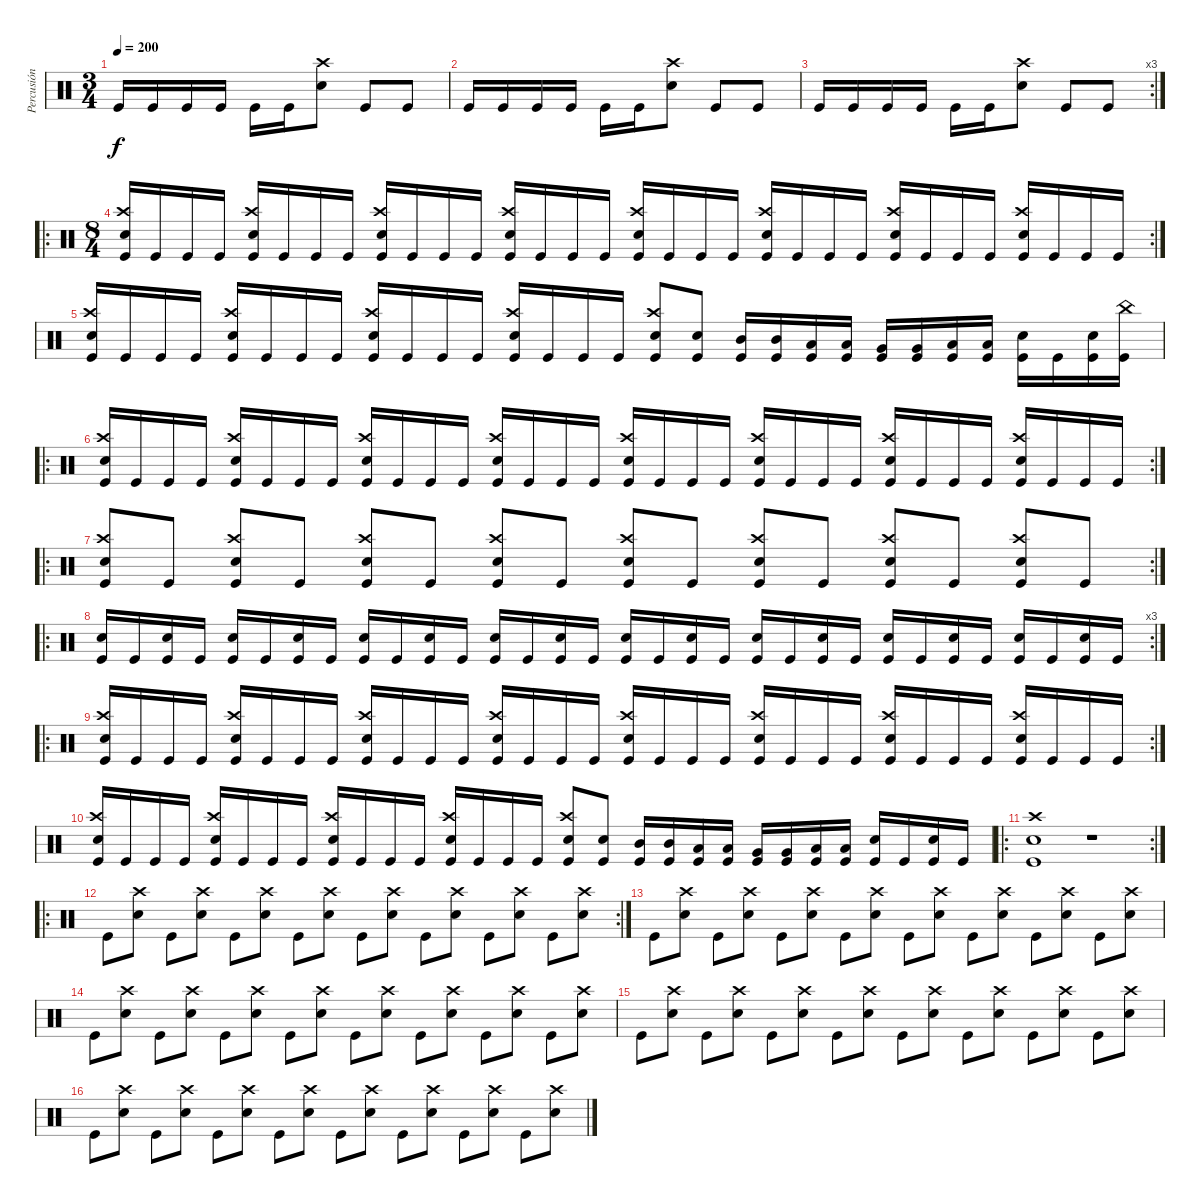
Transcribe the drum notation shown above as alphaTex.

\track ("Percusión" "Percusión") {instrument percussion}
\staff {score}
\articulation defaults
\ts (3 4)
\tempo 200
\clef neutral
\ks c "Kick (hit)".16{dy f} "Kick (hit)".16 "Kick (hit)".16 "Kick (hit)".16 "Kick (hit)".16 "Kick (hit)".16
("Crash high (hit)" "Snare (hit) 2").8 "Kick (hit)".8 "Kick (hit)".8 |
"Kick (hit)".16 "Kick (hit)".16 "Kick (hit)".16 "Kick (hit)".16 "Kick (hit)".16 "Kick (hit)".16 ("Crash high (hit)" "Snare (hit) 2").8 "Kick (hit)".8 "Kick (hit)".8 |
\rc 3 "Kick (hit)".16 "Kick (hit)".16 "Kick (hit)".16 "Kick (hit)".16 "Kick (hit)".16 "Kick (hit)".16
("Crash high (hit)" "Snare (hit) 2").8 "Kick (hit)".8 "Kick (hit)".8 |
\ro
\rc 2
\ts (8 4)
("Crash high (hit)" "Snare (hit) 2" "Kick (hit)").16 "Kick (hit)".16 "Kick (hit)".16 "Kick (hit)".16 ("Crash high (hit)" "Snare (hit) 2" "Kick (hit)").16 "Kick (hit)".16 "Kick (hit)".16 "Kick (hit)".16 ("Crash high (hit)" "Snare (hit) 2" "Kick (hit)").16 "Kick (hit)".16 "Kick (hit)".16 "Kick (hit)".16 ("Crash high (hit)" "Snare (hit) 2" "Kick (hit)").16 "Kick (hit)".16 "Kick (hit)".16 "Kick (hit)".16 ("Crash high (hit)" "Snare (hit) 2" "Kick (hit)").16 "Kick (hit)".16 "Kick (hit)".16 "Kick (hit)".16 ("Crash high (hit)" "Snare (hit) 2" "Kick (hit)").16 "Kick (hit)".16 "Kick (hit)".16 "Kick (hit)".16 ("Crash high (hit)" "Snare (hit) 2" "Kick (hit)").16 "Kick (hit)".16 "Kick (hit)".16 "Kick (hit)".16 ("Crash high (hit)" "Snare (hit) 2" "Kick (hit)").16 "Kick (hit)".16 "Kick (hit)".16 "Kick (hit)".16 |
("Crash high (hit)" "Snare (hit) 2" "Kick (hit)").16 "Kick (hit)".16 "Kick (hit)".16 "Kick (hit)".16 ("Crash high (hit)" "Snare (hit) 2" "Kick (hit)").16 "Kick (hit)".16 "Kick (hit)".16 "Kick (hit)".16 ("Crash high (hit)" "Snare (hit) 2" "Kick (hit)").16 "Kick (hit)".16 "Kick (hit)".16 "Kick (hit)".16 ("Crash high (hit)" "Snare (hit) 2" "Kick (hit)").16 "Kick (hit)".16 "Kick (hit)".16 "Kick (hit)".16 ("Crash high (hit)" "Snare (hit) 2" "Kick (hit)").8 ("Snare (hit) 2" "Kick (hit)").8 ("Mid Tom (hit)" "Kick (hit)").16 ("Mid Tom (hit)" "Kick (hit)").16 ("Low Tom (hit)" "Kick (hit)").16 ("Low Tom (hit)" "Kick (hit)").16 ("Very Low Tom (hit)" "Kick (hit)").16 ("Very Low Tom (hit)" "Kick (hit)").16 ("Low Floor Tom (hit)" "Kick (hit)").16 ("Low Floor Tom (hit)" "Kick (hit)").16 ("Snare (hit) 2" "Kick (hit)").16 "Kick (hit)".16 ("Snare (hit) 2" "Kick (hit)").16 ("China (hit)" "Kick (hit)").16 |
\ro
\rc 2
("Crash high (hit)" "Snare (hit) 2" "Kick (hit)").16 "Kick (hit)".16 "Kick (hit)".16 "Kick (hit)".16 ("Crash high (hit)" "Snare (hit) 2" "Kick (hit)").16 "Kick (hit)".16 "Kick (hit)".16 "Kick (hit)".16 ("Crash high (hit)" "Snare (hit) 2" "Kick (hit)").16 "Kick (hit)".16 "Kick (hit)".16 "Kick (hit)".16 ("Crash high (hit)" "Snare (hit) 2" "Kick (hit)").16 "Kick (hit)".16 "Kick (hit)".16 "Kick (hit)".16 ("Crash high (hit)" "Snare (hit) 2" "Kick (hit)").16 "Kick (hit)".16 "Kick (hit)".16 "Kick (hit)".16 ("Crash high (hit)" "Snare (hit) 2" "Kick (hit)").16 "Kick (hit)".16 "Kick (hit)".16 "Kick (hit)".16 ("Crash high (hit)" "Snare (hit) 2" "Kick (hit)").16 "Kick (hit)".16 "Kick (hit)".16 "Kick (hit)".16 ("Crash high (hit)" "Snare (hit) 2" "Kick (hit)").16 "Kick (hit)".16 "Kick (hit)".16 "Kick (hit)".16 |
\ro
\rc 2
("Crash high (hit)" "Snare (hit) 2" "Kick (hit)").8 "Kick (hit)".8 ("Crash high (hit)" "Snare (hit) 2" "Kick (hit)").8 "Kick (hit)".8 ("Crash high (hit)" "Snare (hit) 2" "Kick (hit)").8 "Kick (hit)".8 ("Crash high (hit)" "Snare (hit) 2" "Kick (hit)").8 "Kick (hit)".8 ("Crash high (hit)" "Snare (hit) 2" "Kick (hit)").8 "Kick (hit)".8 ("Crash high (hit)" "Snare (hit) 2" "Kick (hit)").8 "Kick (hit)".8 ("Crash high (hit)" "Snare (hit) 2" "Kick (hit)").8 "Kick (hit)".8 ("Crash high (hit)" "Snare (hit) 2" "Kick (hit)").8 "Kick (hit)".8 |
\ro
\rc 3
("Snare (hit) 2" "Kick (hit)").16 "Kick (hit)".16 ("Snare (hit) 2" "Kick (hit)").16 "Kick (hit)".16 ("Snare (hit) 2" "Kick (hit)").16 "Kick (hit)".16 ("Snare (hit) 2" "Kick (hit)").16 "Kick (hit)".16 ("Snare (hit) 2" "Kick (hit)").16 "Kick (hit)".16 ("Snare (hit) 2" "Kick (hit)").16 "Kick (hit)".16 ("Snare (hit) 2" "Kick (hit)").16 "Kick (hit)".16 ("Snare (hit) 2" "Kick (hit)").16 "Kick (hit)".16 ("Snare (hit) 2" "Kick (hit)").16 "Kick (hit)".16 ("Snare (hit) 2" "Kick (hit)").16 "Kick (hit)".16 ("Snare (hit) 2" "Kick (hit)").16 "Kick (hit)".16 ("Snare (hit) 2" "Kick (hit)").16 "Kick (hit)".16 ("Snare (hit) 2" "Kick (hit)").16 "Kick (hit)".16 ("Snare (hit) 2" "Kick (hit)").16 "Kick (hit)".16 ("Snare (hit) 2" "Kick (hit)").16 "Kick (hit)".16 ("Snare (hit) 2" "Kick (hit)").16 "Kick (hit)".16 |
\ro
\rc 2
("Crash high (hit)" "Snare (hit) 2" "Kick (hit)").16 "Kick (hit)".16 "Kick (hit)".16 "Kick (hit)".16 ("Crash high (hit)" "Snare (hit) 2" "Kick (hit)").16 "Kick (hit)".16 "Kick (hit)".16 "Kick (hit)".16 ("Crash high (hit)" "Snare (hit) 2" "Kick (hit)").16 "Kick (hit)".16 "Kick (hit)".16 "Kick (hit)".16 ("Crash high (hit)" "Snare (hit) 2" "Kick (hit)").16 "Kick (hit)".16 "Kick (hit)".16 "Kick (hit)".16 ("Crash high (hit)" "Snare (hit) 2" "Kick (hit)").16 "Kick (hit)".16 "Kick (hit)".16 "Kick (hit)".16 ("Crash high (hit)" "Snare (hit) 2" "Kick (hit)").16 "Kick (hit)".16 "Kick (hit)".16 "Kick (hit)".16 ("Crash high (hit)" "Snare (hit) 2" "Kick (hit)").16 "Kick (hit)".16 "Kick (hit)".16 "Kick (hit)".16 ("Crash high (hit)" "Snare (hit) 2" "Kick (hit)").16 "Kick (hit)".16 "Kick (hit)".16 "Kick (hit)".16 |
("Crash high (hit)" "Snare (hit) 2" "Kick (hit)").16 "Kick (hit)".16 "Kick (hit)".16 "Kick (hit)".16 ("Crash high (hit)" "Snare (hit) 2" "Kick (hit)").16 "Kick (hit)".16 "Kick (hit)".16 "Kick (hit)".16 ("Crash high (hit)" "Snare (hit) 2" "Kick (hit)").16 "Kick (hit)".16 "Kick (hit)".16 "Kick (hit)".16 ("Crash high (hit)" "Snare (hit) 2" "Kick (hit)").16 "Kick (hit)".16 "Kick (hit)".16 "Kick (hit)".16 ("Crash high (hit)" "Snare (hit) 2" "Kick (hit)").8 ("Snare (hit) 2" "Kick (hit)").8 ("Mid Tom (hit)" "Kick (hit)").16 ("Mid Tom (hit)" "Kick (hit)").16 ("Low Tom (hit)" "Kick (hit)").16 ("Low Tom (hit)" "Kick (hit)").16 ("Very Low Tom (hit)" "Kick (hit)").16 ("Very Low Tom (hit)" "Kick (hit)").16 ("Low Floor Tom (hit)" "Kick (hit)").16 ("Low Floor Tom (hit)" "Kick (hit)").16 ("Snare (hit) 2" "Kick (hit)").16 "Kick (hit)".16 ("Snare (hit) 2" "Kick (hit)").16 "Kick (hit)".16 |
\ro
\rc 2
("Crash high (hit)" "Snare (hit) 2" "Kick (hit)").1 r.1 |
\ro
\rc 2 "Kick (hit)".8
("Crash high (hit)" "Snare (hit) 2").8 "Kick (hit)".8 ("Crash high (hit)" "Snare (hit) 2").8 "Kick (hit)".8 ("Crash high (hit)" "Snare (hit) 2").8 "Kick (hit)".8 ("Crash high (hit)" "Snare (hit) 2").8 "Kick (hit)".8 ("Crash high (hit)" "Snare (hit) 2").8 "Kick (hit)".8 ("Crash high (hit)" "Snare (hit) 2").8 "Kick (hit)".8 ("Crash high (hit)" "Snare (hit) 2").8 "Kick (hit)".8 ("Crash high (hit)" "Snare (hit) 2").8 |
"Kick (hit)".8 ("Crash high (hit)" "Snare (hit) 2").8 "Kick (hit)".8 ("Crash high (hit)" "Snare (hit) 2").8 "Kick (hit)".8 ("Crash high (hit)" "Snare (hit) 2").8 "Kick (hit)".8 ("Crash high (hit)" "Snare (hit) 2").8 "Kick (hit)".8 ("Crash high (hit)" "Snare (hit) 2").8 "Kick (hit)".8 ("Crash high (hit)" "Snare (hit) 2").8 "Kick (hit)".8 ("Crash high (hit)" "Snare (hit) 2").8 "Kick (hit)".8 ("Crash high (hit)" "Snare (hit) 2").8 |
"Kick (hit)".8 ("Crash high (hit)" "Snare (hit) 2").8 "Kick (hit)".8 ("Crash high (hit)" "Snare (hit) 2").8 "Kick (hit)".8 ("Crash high (hit)" "Snare (hit) 2").8 "Kick (hit)".8 ("Crash high (hit)" "Snare (hit) 2").8 "Kick (hit)".8 ("Crash high (hit)" "Snare (hit) 2").8 "Kick (hit)".8 ("Crash high (hit)" "Snare (hit) 2").8 "Kick (hit)".8 ("Crash high (hit)" "Snare (hit) 2").8 "Kick (hit)".8 ("Crash high (hit)" "Snare (hit) 2").8 |
"Kick (hit)".8 ("Crash high (hit)" "Snare (hit) 2").8 "Kick (hit)".8 ("Crash high (hit)" "Snare (hit) 2").8 "Kick (hit)".8 ("Crash high (hit)" "Snare (hit) 2").8 "Kick (hit)".8 ("Crash high (hit)" "Snare (hit) 2").8 "Kick (hit)".8 ("Crash high (hit)" "Snare (hit) 2").8 "Kick (hit)".8 ("Crash high (hit)" "Snare (hit) 2").8 "Kick (hit)".8 ("Crash high (hit)" "Snare (hit) 2").8 "Kick (hit)".8 ("Crash high (hit)" "Snare (hit) 2").8 |
"Kick (hit)".8 ("Crash high (hit)" "Snare (hit) 2").8 "Kick (hit)".8 ("Crash high (hit)" "Snare (hit) 2").8 "Kick (hit)".8 ("Crash high (hit)" "Snare (hit) 2").8 "Kick (hit)".8 ("Crash high (hit)" "Snare (hit) 2").8 "Kick (hit)".8 ("Crash high (hit)" "Snare (hit) 2").8 "Kick (hit)".8 ("Crash high (hit)" "Snare (hit) 2").8 "Kick (hit)".8 ("Crash high (hit)" "Snare (hit) 2").8 "Kick (hit)".8 ("Crash high (hit)" "Snare (hit) 2").8
